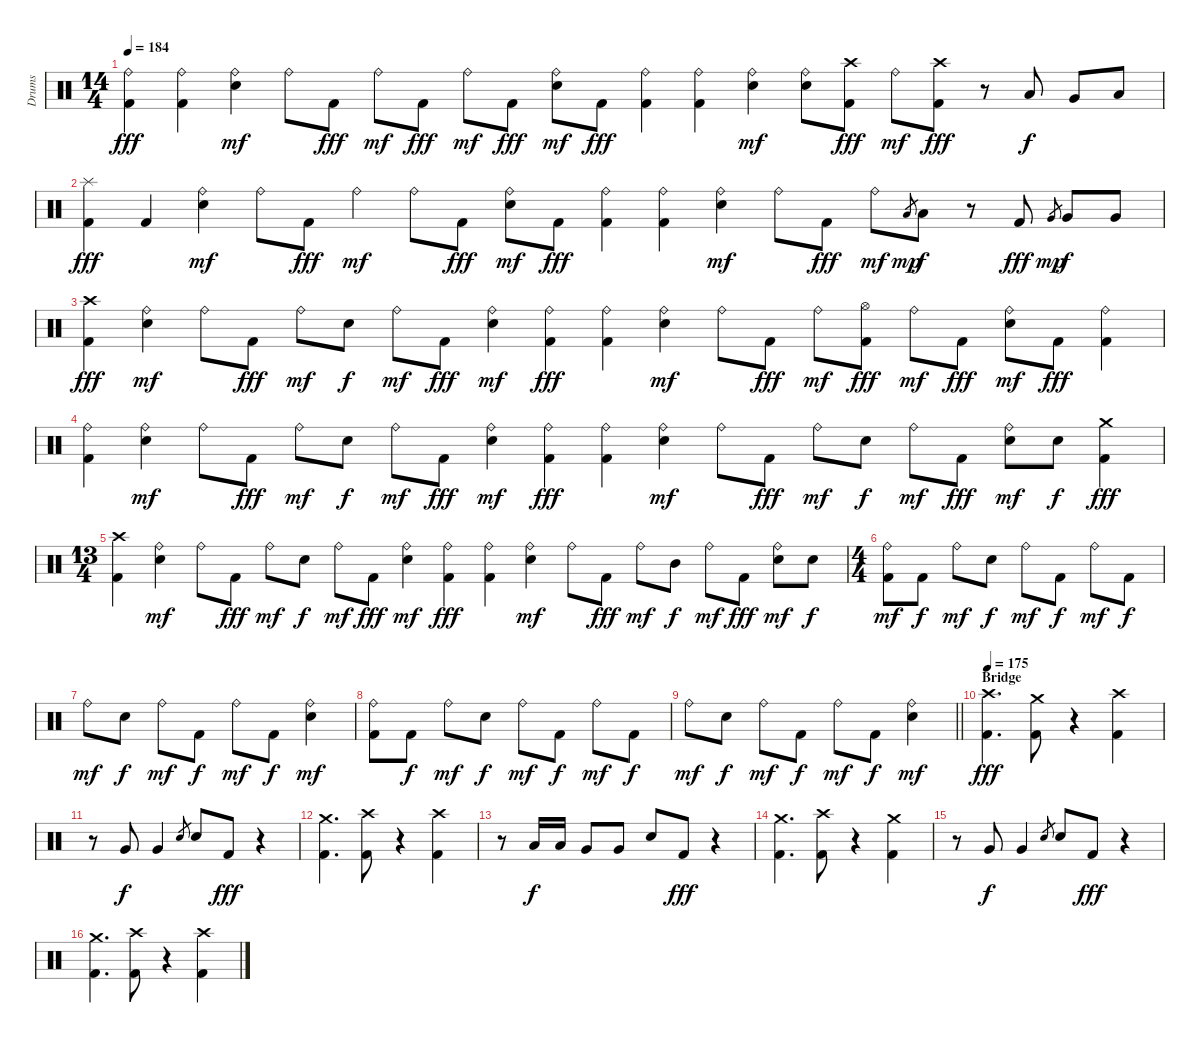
\track ("Drums" "Drums") {instrument percussion}
\staff {score}
\articulation defaults
\ts (14 4)
\tempo 184
\clef neutral
\ks c
("Ride (bell)" "Kick (hit) 2").4{dy fff} ("Ride (bell)" "Kick (hit) 2").4 ("Ride (bell)" "Electric Snare (hit)").4{dy mf} "Ride (bell)".8 "Kick (hit) 2".8{dy fff} "Ride (bell)".8{dy mf} "Kick (hit) 2".8{dy fff} "Ride (bell)".8{dy mf} "Kick (hit) 2".8{dy fff} ("Ride (bell)" "Electric Snare (hit)").8{dy mf} "Kick (hit) 2".8{dy fff} ("Ride (bell)" "Kick (hit) 2").4 ("Ride (bell)" "Kick (hit) 2").4 ("Ride (bell)" "Electric Snare (hit)").4{dy mf} ("Ride (bell)" "Electric Snare (hit)").8 ("Crash high (hit)" "Kick (hit) 2").8{dy fff} "Ride (bell)".8{dy mf} ("Crash high (hit)" "Kick (hit) 2").8{dy fff} r.8 "Low Tom (hit)".8{dy f} "Very Low Tom (hit)".8 "Low Floor Tom (hit)".8 |
("Splash (hit)" "Kick (hit) 2").4{dy fff} "Kick (hit) 2".4 ("Ride (bell)" "Electric Snare (hit)").4{dy mf} "Ride (bell)".8 "Kick (hit) 2".8{dy fff} "Ride (bell)".4{dy mf} "Ride (bell)".8 "Kick (hit) 2".8{dy fff} ("Ride (bell)" "Electric Snare (hit)").8{dy mf} "Kick (hit) 2".8{dy fff} ("Ride (bell)" "Kick (hit) 2").4 ("Ride (bell)" "Kick (hit) 2").4 ("Ride (bell)" "Electric Snare (hit)").4{dy mf} "Ride (bell)".8 "Kick (hit) 2".8{dy fff} "Ride (bell)".8{dy mf} "Low Tom (hit)".8{gr dy mp} "Low Tom (hit)".8{dy f} r.8 "Kick (hit) 2".8{dy fff} "Very Low Tom (hit)".8{gr dy mp} "Very Low Tom (hit)".8{dy f} "Very Low Tom (hit)".8 |
("Crash high (hit)" "Kick (hit) 2").4{dy fff} ("Ride (bell)" "Electric Snare (hit)").4{dy mf} "Ride (bell)".8 "Kick (hit) 2".8{dy fff} "Ride (bell)".8{dy mf} "Electric Snare (hit)".8{dy f} "Ride (bell)".8{dy mf} "Kick (hit) 2".8{dy fff} ("Ride (bell)" "Electric Snare (hit)").4{dy mf} ("Ride (bell)" "Kick (hit) 2").4{dy fff} ("Ride (bell)" "Kick (hit) 2").4 ("Ride (bell)" "Electric Snare (hit)").4{dy mf} "Ride (bell)".8 "Kick (hit) 2".8{dy fff} "Ride (bell)".8{dy mf} ("Hi-Hat (open)" "Kick (hit) 2").8{dy fff} "Ride (bell)".8{dy mf} "Kick (hit) 2".8{dy fff} ("Ride (bell)" "Electric Snare (hit)").8{dy mf} "Kick (hit) 2".8{dy fff} ("Ride (bell)" "Kick (hit) 2").4 |
("Ride (bell)" "Kick (hit) 2").4 ("Ride (bell)" "Electric Snare (hit)").4{dy mf} "Ride (bell)".8 "Kick (hit) 2".8{dy fff} "Ride (bell)".8{dy mf} "Electric Snare (hit)".8{dy f} "Ride (bell)".8{dy mf} "Kick (hit) 2".8{dy fff} ("Ride (bell)" "Electric Snare (hit)").4{dy mf} ("Ride (bell)" "Kick (hit) 2").4{dy fff} ("Ride (bell)" "Kick (hit) 2").4 ("Ride (bell)" "Electric Snare (hit)").4{dy mf} "Ride (bell)".8 "Kick (hit) 2".8{dy fff} "Ride (bell)".8{dy mf} "Electric Snare (hit)".8{dy f} "Ride (bell)".8{dy mf} "Kick (hit) 2".8{dy fff} ("Ride (bell)" "Electric Snare (hit)").8{dy mf} "Electric Snare (hit)".8{dy f} ("Crash medium (hit)" "Kick (hit) 2").4{dy fff} |
\ts (13 4)
("Crash high (hit)" "Kick (hit) 2").4 ("Ride (bell)" "Electric Snare (hit)").4{dy mf} "Ride (bell)".8 "Kick (hit) 2".8{dy fff} "Ride (bell)".8{dy mf} "Electric Snare (hit)".8{dy f} "Ride (bell)".8{dy mf} "Kick (hit) 2".8{dy fff} ("Ride (bell)" "Electric Snare (hit)").4{dy mf} ("Ride (bell)" "Kick (hit) 2").4{dy fff} ("Ride (bell)" "Kick (hit) 2").4 ("Ride (bell)" "Electric Snare (hit)").4{dy mf} "Ride (bell)".8 "Kick (hit) 2".8{dy fff} "Ride (bell)".8{dy mf} "Mid Tom (hit)".8{dy f} "Ride (bell)".8{dy mf} "Kick (hit) 2".8{dy fff} ("Ride (bell)" "Electric Snare (hit)").8{dy mf} "Electric Snare (hit)".8{dy f} |
\ts (4 4)
("Ride (bell)" "Kick (hit) 2").8{dy mf} "Kick (hit) 2".8{dy f} "Ride (bell)".8{dy mf} "Electric Snare (hit)".8{dy f} "Ride (bell)".8{dy mf} "Kick (hit) 2".8{dy f} "Ride (bell)".8{dy mf} "Kick (hit) 2".8{dy f} |
"Ride (bell)".8{dy mf} "Electric Snare (hit)".8{dy f} "Ride (bell)".8{dy mf} "Kick (hit) 2".8{dy f} "Ride (bell)".8{dy mf} "Kick (hit) 2".8{dy f} ("Ride (bell)" "Electric Snare (hit)").4{dy mf} |
("Ride (bell)" "Kick (hit) 2").8 "Kick (hit) 2".8{dy f} "Ride (bell)".8{dy mf} "Electric Snare (hit)".8{dy f} "Ride (bell)".8{dy mf} "Kick (hit) 2".8{dy f} "Ride (bell)".8{dy mf} "Kick (hit) 2".8{dy f} |
\barLineRight lightlight "Ride (bell)".8{dy mf} "Electric Snare (hit)".8{dy f} "Ride (bell)".8{dy mf} "Kick (hit) 2".8{dy f} "Ride (bell)".8{dy mf} "Kick (hit) 2".8{dy f}
("Ride (bell)" "Electric Snare (hit)").4{dy mf} |
\section ("" "Bridge")
\tempo 175
("Crash high (hit)" "Kick (hit) 2").4{d dy fff} ("Crash medium (hit)" "Kick (hit) 2").8 r.4 ("Crash high (hit)" "Kick (hit) 2").4 |
r.8 "Very Low Tom (hit)".8{dy f} "Very Low Tom (hit)".4 "Electric Snare (hit)".8{gr} "Electric Snare (hit)".8 "Kick (hit) 2".8{dy fff} r.4 |
("Crash medium (hit)" "Kick (hit) 2").4{d} ("Crash high (hit)" "Kick (hit) 2").8 r.4 ("Crash high (hit)" "Kick (hit) 2").4 |
r.8 "Low Tom (hit)".16{dy f} "Low Tom (hit)".16 "Very Low Tom (hit)".8 "Very Low Tom (hit)".8 "Electric Snare (hit)".8 "Kick (hit) 2".8{dy fff} r.4 |
("Crash medium (hit)" "Kick (hit) 2").4{d} ("Crash high (hit)" "Kick (hit) 2").8 r.4 ("Crash medium (hit)" "Kick (hit) 2").4 |
r.8 "Very Low Tom (hit)".8{dy f} "Very Low Tom (hit)".4 "Electric Snare (hit)".8{gr} "Electric Snare (hit)".8 "Kick (hit) 2".8{dy fff} r.4 |
("Crash medium (hit)" "Kick (hit) 2").4{d} ("Crash high (hit)" "Kick (hit) 2").8 r.4 ("Crash high (hit)" "Kick (hit) 2").4
